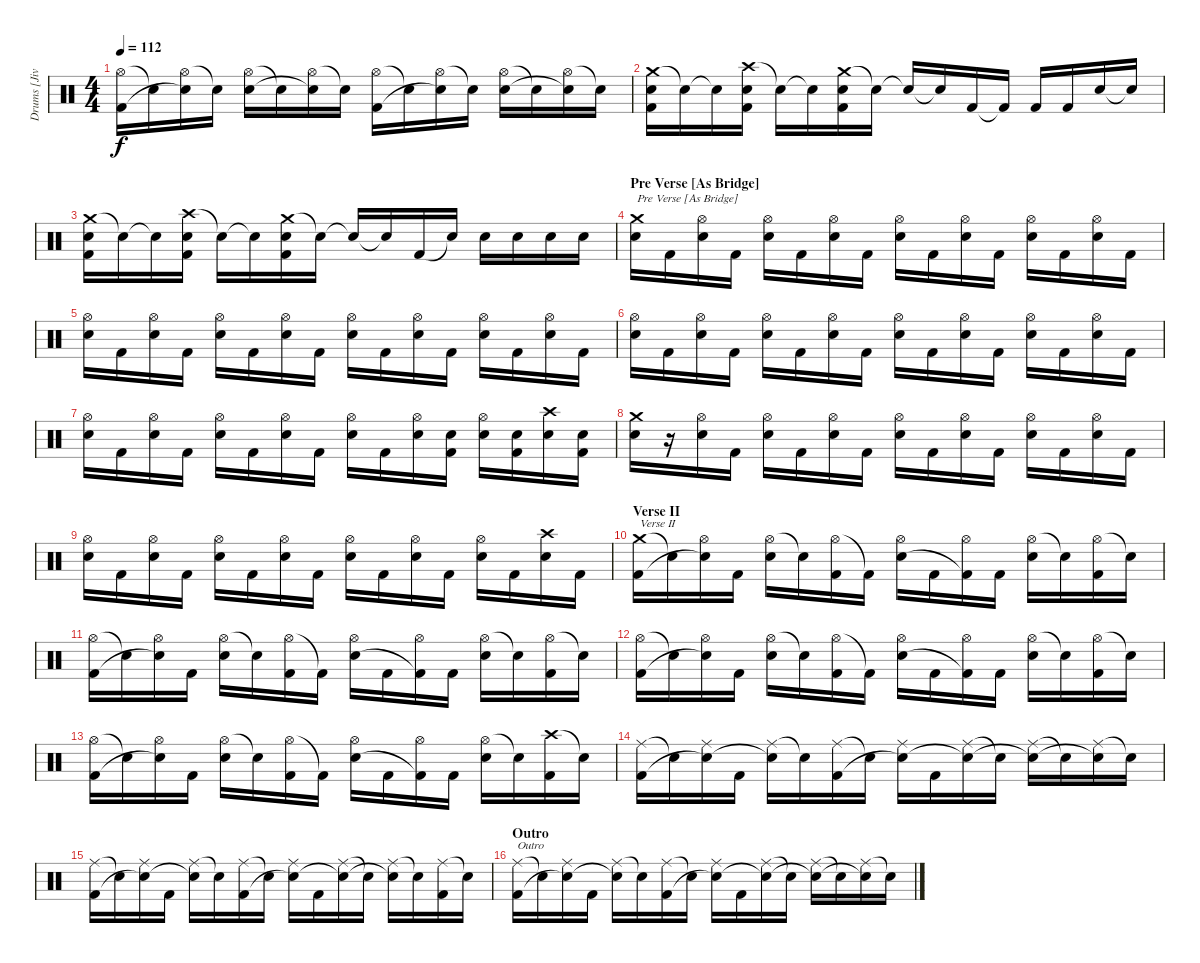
\track ("Drums [Jivarp]" "Drums [Jiv") {instrument percussion}
\staff {score}
\articulation defaults
\ts (4 4)
\tempo 112
\clef neutral
\ks c
("Hi-Hat (open)" "Kick (hit) 2").16{dy f} "Snare (hit)"{t}.16 ("Hi-Hat (open)" "Snare (hit)"{t}).16 "Snare (hit)"{t}.16 ("Hi-Hat (open)" "Electric Snare (hit)").16 "Snare (hit)"{t}.16 ("Hi-Hat (open)" "Snare (hit)"{t}).16 "Snare (hit)"{t}.16 ("Hi-Hat (open)" "Kick (hit) 2").16 "Snare (hit)"{t}.16 ("Hi-Hat (open)" "Snare (hit)"{t}).16 "Snare (hit)"{t}.16 ("Hi-Hat (open)" "Electric Snare (hit)").16 "Snare (hit)"{t}.16 ("Hi-Hat (open)" "Snare (hit)"{t}).16 "Snare (hit)"{t}.16 |
("Crash medium (hit)" "Electric Snare (hit)" "Kick (hit) 2").16 "Snare (hit)"{t}.16 "Snare (hit)"{t}.16 ("Crash high (hit)" "Electric Snare (hit)" "Kick (hit) 2").16 "Snare (hit)"{t}.16 "Snare (hit)"{t}.16 ("Crash medium (hit)" "Electric Snare (hit)" "Kick (hit) 2").16 "Snare (hit)"{t}.16 "Snare (hit)"{t}.16 "Snare (hit)"{t}.16 "Kick (hit) 2".16 "Kick (hit) 2"{t}.16 "Kick (hit) 2".16 "Kick (hit) 2".16 "Electric Snare (hit)".16 "Snare (hit)"{t}.16 |
("Crash medium (hit)" "Electric Snare (hit)" "Kick (hit) 2").16 "Snare (hit)"{t}.16 "Snare (hit)"{t}.16 ("Crash high (hit)" "Electric Snare (hit)" "Kick (hit) 2").16 "Snare (hit)"{t}.16 "Snare (hit)"{t}.16 ("Crash medium (hit)" "Electric Snare (hit)" "Kick (hit) 2").16 "Snare (hit)"{t}.16 "Snare (hit)"{t}.16 "Snare (hit)"{t}.16 "Kick (hit) 2".16 "Snare (hit)"{t}.16 "Electric Snare (hit)".16 "Electric Snare (hit)".16 "Electric Snare (hit)".16 "Electric Snare (hit)".16 |
\section ("" "Pre Verse [As Bridge]")
("Crash medium (hit)" "Electric Snare (hit)").16{txt "Pre Verse [As Bridge]"} "Kick (hit) 2".16 ("Hi-Hat (open)" "Electric Snare (hit)").16 "Kick (hit) 2".16 ("Hi-Hat (open)" "Electric Snare (hit)").16 "Kick (hit) 2".16 ("Hi-Hat (open)" "Electric Snare (hit)").16 "Kick (hit) 2".16 ("Hi-Hat (open)" "Electric Snare (hit)").16 "Kick (hit) 2".16 ("Hi-Hat (open)" "Electric Snare (hit)").16 "Kick (hit) 2".16 ("Hi-Hat (open)" "Electric Snare (hit)").16 "Kick (hit) 2".16 ("Hi-Hat (open)" "Electric Snare (hit)").16 "Kick (hit) 2".16 |
("Hi-Hat (open)" "Electric Snare (hit)").16 "Kick (hit) 2".16 ("Hi-Hat (open)" "Electric Snare (hit)").16 "Kick (hit) 2".16 ("Hi-Hat (open)" "Electric Snare (hit)").16 "Kick (hit) 2".16 ("Hi-Hat (open)" "Electric Snare (hit)").16 "Kick (hit) 2".16 ("Hi-Hat (open)" "Electric Snare (hit)").16 "Kick (hit) 2".16 ("Hi-Hat (open)" "Electric Snare (hit)").16 "Kick (hit) 2".16 ("Hi-Hat (open)" "Electric Snare (hit)").16 "Kick (hit) 2".16 ("Hi-Hat (open)" "Electric Snare (hit)").16 "Kick (hit) 2".16 |
("Hi-Hat (open)" "Electric Snare (hit)").16 "Kick (hit) 2".16 ("Hi-Hat (open)" "Electric Snare (hit)").16 "Kick (hit) 2".16 ("Hi-Hat (open)" "Electric Snare (hit)").16 "Kick (hit) 2".16 ("Hi-Hat (open)" "Electric Snare (hit)").16 "Kick (hit) 2".16 ("Hi-Hat (open)" "Electric Snare (hit)").16 "Kick (hit) 2".16 ("Hi-Hat (open)" "Electric Snare (hit)").16 "Kick (hit) 2".16 ("Hi-Hat (open)" "Electric Snare (hit)").16 "Kick (hit) 2".16 ("Hi-Hat (open)" "Electric Snare (hit)").16 "Kick (hit) 2".16 |
("Hi-Hat (open)" "Electric Snare (hit)").16 "Kick (hit) 2".16 ("Hi-Hat (open)" "Electric Snare (hit)").16 "Kick (hit) 2".16 ("Hi-Hat (open)" "Electric Snare (hit)").16 "Kick (hit) 2".16 ("Hi-Hat (open)" "Electric Snare (hit)").16 "Kick (hit) 2".16 ("Hi-Hat (open)" "Electric Snare (hit)").16 "Kick (hit) 2".16 ("Hi-Hat (open)" "Electric Snare (hit)").16 ("Electric Snare (hit)" "Kick (hit) 2").16 ("Hi-Hat (open)" "Electric Snare (hit)").16 ("Electric Snare (hit)" "Kick (hit) 2").16 ("Crash high (hit)" "Electric Snare (hit)").16 ("Electric Snare (hit)" "Kick (hit) 2").16 |
("Crash medium (hit)" "Electric Snare (hit)").16 r.16 ("Hi-Hat (open)" "Electric Snare (hit)").16 "Kick (hit) 2".16 ("Hi-Hat (open)" "Electric Snare (hit)").16 "Kick (hit) 2".16 ("Hi-Hat (open)" "Electric Snare (hit)").16 "Kick (hit) 2".16 ("Hi-Hat (open)" "Electric Snare (hit)").16 "Kick (hit) 2".16 ("Hi-Hat (open)" "Electric Snare (hit)").16 "Kick (hit) 2".16 ("Hi-Hat (open)" "Electric Snare (hit)").16 "Kick (hit) 2".16 ("Hi-Hat (open)" "Electric Snare (hit)").16 "Kick (hit) 2".16 |
("Hi-Hat (open)" "Electric Snare (hit)").16 "Kick (hit) 2".16 ("Hi-Hat (open)" "Electric Snare (hit)").16 "Kick (hit) 2".16 ("Hi-Hat (open)" "Electric Snare (hit)").16 "Kick (hit) 2".16 ("Hi-Hat (open)" "Electric Snare (hit)").16 "Kick (hit) 2".16 ("Hi-Hat (open)" "Electric Snare (hit)").16 "Kick (hit) 2".16 ("Hi-Hat (open)" "Electric Snare (hit)").16 "Kick (hit) 2".16 ("Hi-Hat (open)" "Electric Snare (hit)").16 "Kick (hit) 2".16 ("Crash high (hit)" "Electric Snare (hit)").16 "Kick (hit) 2".16 |
\section ("" "Verse II")
("Crash medium (hit)" "Kick (hit) 2").16{txt "Verse II"} "Snare (hit)"{t}.16 ("Hi-Hat (open)" "Snare (hit)"{t}).16 "Kick (hit) 2".16 ("Hi-Hat (open)" "Electric Snare (hit)").16 "Snare (hit)"{t}.16 ("Hi-Hat (open)" "Kick (hit) 2").16 "Kick (hit) 2"{t}.16 ("Hi-Hat (open)" "Electric Snare (hit)").16 "Kick (hit) 2".16 ("Hi-Hat (open)" "Kick (hit) 2"{t}).16 "Kick (hit) 2".16 ("Hi-Hat (open)" "Electric Snare (hit)").16 "Snare (hit)"{t}.16 ("Hi-Hat (open)" "Kick (hit) 2").16 "Snare (hit)"{t}.16 |
("Hi-Hat (open)" "Kick (hit) 2").16 "Snare (hit)"{t}.16 ("Hi-Hat (open)" "Snare (hit)"{t}).16 "Kick (hit) 2".16 ("Hi-Hat (open)" "Electric Snare (hit)").16 "Snare (hit)"{t}.16 ("Hi-Hat (open)" "Kick (hit) 2").16 "Kick (hit) 2"{t}.16 ("Hi-Hat (open)" "Electric Snare (hit)").16 "Kick (hit) 2".16 ("Hi-Hat (open)" "Kick (hit) 2"{t}).16 "Kick (hit) 2".16 ("Hi-Hat (open)" "Electric Snare (hit)").16 "Snare (hit)"{t}.16 ("Hi-Hat (open)" "Kick (hit) 2").16 "Snare (hit)"{t}.16 |
("Hi-Hat (open)" "Kick (hit) 2").16 "Snare (hit)"{t}.16 ("Hi-Hat (open)" "Snare (hit)"{t}).16 "Kick (hit) 2".16 ("Hi-Hat (open)" "Electric Snare (hit)").16 "Snare (hit)"{t}.16 ("Hi-Hat (open)" "Kick (hit) 2").16 "Kick (hit) 2"{t}.16 ("Hi-Hat (open)" "Electric Snare (hit)").16 "Kick (hit) 2".16 ("Hi-Hat (open)" "Kick (hit) 2"{t}).16 "Kick (hit) 2".16 ("Hi-Hat (open)" "Electric Snare (hit)").16 "Snare (hit)"{t}.16 ("Hi-Hat (open)" "Kick (hit) 2").16 "Snare (hit)"{t}.16 |
("Hi-Hat (open)" "Kick (hit) 2").16 "Snare (hit)"{t}.16 ("Hi-Hat (open)" "Snare (hit)"{t}).16 "Kick (hit) 2".16 ("Hi-Hat (open)" "Electric Snare (hit)").16 "Snare (hit)"{t}.16 ("Hi-Hat (open)" "Kick (hit) 2").16 "Kick (hit) 2"{t}.16 ("Hi-Hat (open)" "Electric Snare (hit)").16 "Kick (hit) 2".16 ("Hi-Hat (open)" "Kick (hit) 2"{t}).16 "Kick (hit) 2".16 ("Hi-Hat (open)" "Electric Snare (hit)").16 "Snare (hit)"{t}.16 ("Crash high (hit)" "Kick (hit) 2").16 "Snare (hit)"{t}.16 |
("Ride (middle)" "Kick (hit) 2").16 "Snare (hit)"{t}.16 ("Ride (middle)" "Snare (hit)"{t}).16 "Kick (hit) 2".16 ("Ride (middle)" "Snare (hit)"{t}).16 "Snare (hit)"{t}.16 ("Ride (middle)" "Kick (hit) 2").16 "Snare (hit)"{t}.16 ("Ride (middle)" "Snare (hit)"{t}).16 "Kick (hit) 2".16 ("Ride (middle)" "Snare (hit)"{t}).16 "Snare (hit)"{t}.16 ("Ride (middle)" "Snare (hit)"{t}).16 "Snare (hit)"{t}.16 ("Ride (middle)" "Snare (hit)"{t}).16 "Snare (hit)"{t}.16 |
("Ride (middle)" "Kick (hit) 2").16 "Snare (hit)"{t}.16 ("Ride (middle)" "Snare (hit)"{t}).16 "Kick (hit) 2".16 ("Ride (middle)" "Snare (hit)"{t}).16 "Snare (hit)"{t}.16 ("Ride (middle)" "Kick (hit) 2").16 "Snare (hit)"{t}.16 ("Ride (middle)" "Snare (hit)"{t}).16 "Kick (hit) 2".16 ("Ride (middle)" "Snare (hit)"{t}).16 "Snare (hit)"{t}.16 ("Ride (middle)" "Snare (hit)"{t}).16 "Snare (hit)"{t}.16 ("Ride (middle)" "Kick (hit) 2").16 "Snare (hit)"{t}.16 |
\section ("" "Outro")
("Ride (middle)" "Kick (hit) 2").16{txt "Outro"} "Snare (hit)"{t}.16 ("Ride (middle)" "Snare (hit)"{t}).16 "Kick (hit) 2".16 ("Ride (middle)" "Snare (hit)"{t}).16 "Snare (hit)"{t}.16 ("Ride (middle)" "Kick (hit) 2").16 "Snare (hit)"{t}.16 ("Ride (middle)" "Snare (hit)"{t}).16 "Kick (hit) 2".16 ("Ride (middle)" "Snare (hit)"{t}).16 "Snare (hit)"{t}.16 ("Ride (middle)" "Snare (hit)"{t}).16 "Snare (hit)"{t}.16 ("Ride (middle)" "Snare (hit)"{t}).16 "Snare (hit)"{t}.16
